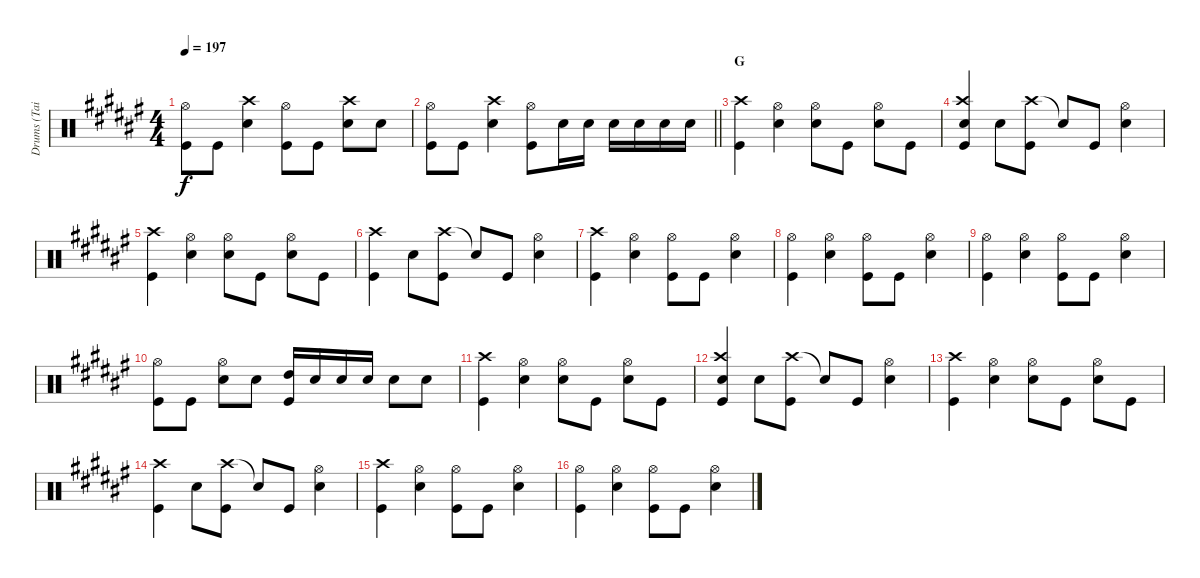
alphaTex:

\track ("Drums (Tainaka Ritsu)" "Drums (Tai") {instrument percussion}
\staff {score}
\articulation defaults
\ts (4 4)
\tempo 197
\clef neutral
\ks f#
("Hi-Hat (open)" "Kick (hit)").8{dy f} "Kick (hit)".8 ("Crash high (hit)" "Snare (hit) 2").4 ("Hi-Hat (open)" "Kick (hit)").8 "Kick (hit)".8 ("Crash high (hit)" "Snare (hit) 2").8 "Snare (hit) 2".8 |
\barLineRight lightlight
("Hi-Hat (open)" "Kick (hit)").8 "Kick (hit)".8 ("Crash high (hit)" "Snare (hit) 2").4 ("Hi-Hat (open)" "Kick (hit)").8 "Snare (hit) 2".16 "Snare (hit) 2".16 "Snare (hit) 2".16 "Snare (hit) 2".16 "Snare (hit) 2".16 "Snare (hit) 2".16 |
\section ("" "G")
("Crash high (hit)" "Kick (hit)").4 ("Hi-Hat (open)" "Snare (hit) 2").4 ("Hi-Hat (open)" "Snare (hit) 2").8 "Kick (hit)".8 ("Hi-Hat (open)" "Snare (hit) 2").8 "Kick (hit)".8 |
("Crash high (hit)" "Snare (hit) 2" "Kick (hit)").4 "Snare (hit) 2".8 ("Crash high (hit)" "Kick (hit)").8 "Snare (hit)"{t}.8 "Kick (hit)".8 ("Hi-Hat (open)" "Snare (hit) 2").4 |
("Crash high (hit)" "Kick (hit)").4 ("Hi-Hat (open)" "Snare (hit) 2").4 ("Hi-Hat (open)" "Snare (hit) 2").8 "Kick (hit)".8 ("Hi-Hat (open)" "Snare (hit) 2").8 "Kick (hit)".8 |
("Crash high (hit)" "Kick (hit)").4 "Snare (hit) 2".8 ("Crash high (hit)" "Kick (hit)").8 "Snare (hit)"{t}.8 "Kick (hit)".8 ("Hi-Hat (open)" "Snare (hit) 2").4 |
("Crash high (hit)" "Kick (hit)").4 ("Hi-Hat (open)" "Snare (hit) 2").4 ("Hi-Hat (open)" "Kick (hit)").8 "Kick (hit)".8 ("Hi-Hat (open)" "Snare (hit) 2").4 |
("Hi-Hat (open)" "Kick (hit)").4 ("Hi-Hat (open)" "Snare (hit) 2").4 ("Hi-Hat (open)" "Kick (hit)").8 "Kick (hit)".8 ("Hi-Hat (open)" "Snare (hit) 2").4 |
("Hi-Hat (open)" "Kick (hit)").4 ("Hi-Hat (open)" "Snare (hit) 2").4 ("Hi-Hat (open)" "Kick (hit)").8 "Kick (hit)".8 ("Hi-Hat (open)" "Snare (hit) 2").4 |
("Hi-Hat (open)" "Kick (hit)").8 "Kick (hit)".8 ("Hi-Hat (open)" "Snare (hit) 2").8 "Snare (hit) 2".8 ("High Tom (hit)" "Kick (hit)").16 "Snare (hit) 2".16 "Snare (hit) 2".16 "Snare (hit) 2".16 "Snare (hit) 2".8 "Snare (hit) 2".8 |
("Crash high (hit)" "Kick (hit)").4 ("Hi-Hat (open)" "Snare (hit) 2").4 ("Hi-Hat (open)" "Snare (hit) 2").8 "Kick (hit)".8 ("Hi-Hat (open)" "Snare (hit) 2").8 "Kick (hit)".8 |
("Crash high (hit)" "Snare (hit) 2" "Kick (hit)").4 "Snare (hit) 2".8 ("Crash high (hit)" "Kick (hit)").8 "Snare (hit)"{t}.8 "Kick (hit)".8 ("Hi-Hat (open)" "Snare (hit) 2").4 |
("Crash high (hit)" "Kick (hit)").4 ("Hi-Hat (open)" "Snare (hit) 2").4 ("Hi-Hat (open)" "Snare (hit) 2").8 "Kick (hit)".8 ("Hi-Hat (open)" "Snare (hit) 2").8 "Kick (hit)".8 |
("Crash high (hit)" "Kick (hit)").4 "Snare (hit) 2".8 ("Crash high (hit)" "Kick (hit)").8 "Snare (hit)"{t}.8 "Kick (hit)".8 ("Hi-Hat (open)" "Snare (hit) 2").4 |
("Crash high (hit)" "Kick (hit)").4 ("Hi-Hat (open)" "Snare (hit) 2").4 ("Hi-Hat (open)" "Kick (hit)").8 "Kick (hit)".8 ("Hi-Hat (open)" "Snare (hit) 2").4 |
("Hi-Hat (open)" "Kick (hit)").4 ("Hi-Hat (open)" "Snare (hit) 2").4 ("Hi-Hat (open)" "Kick (hit)").8 "Kick (hit)".8 ("Hi-Hat (open)" "Snare (hit) 2").4
